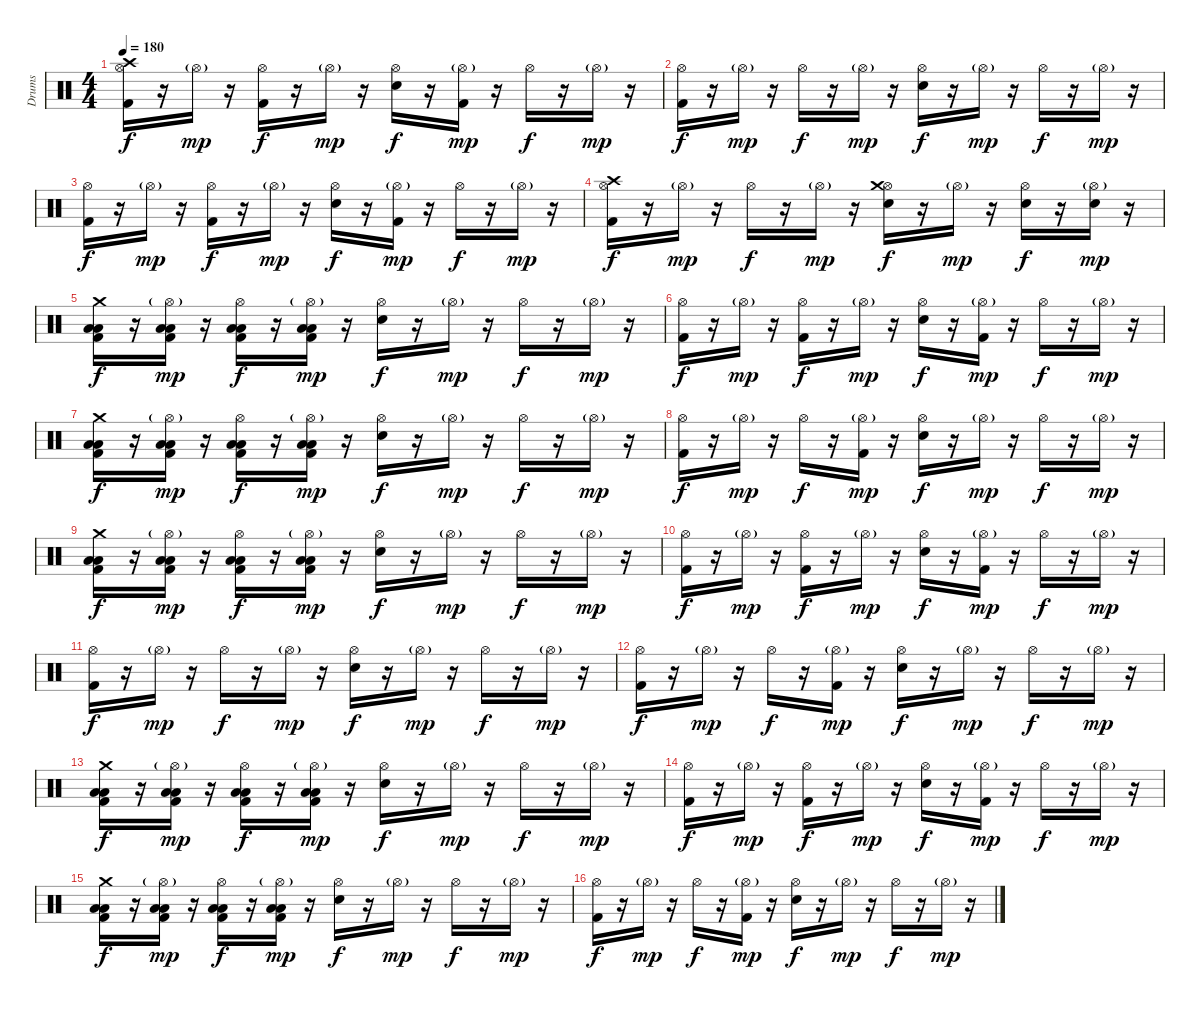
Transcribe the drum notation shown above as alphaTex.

\track ("Drums" "Drums") {instrument percussion}
\staff {score}
\articulation defaults
\ts (4 4)
\tempo 180
\clef neutral
\ks c
("Hi-Hat (open)" "Crash high (hit)" "Kick (hit) 2").16{dy f} r.16 "Hi-Hat (open)"{g}.16{dy mp} r.16 ("Hi-Hat (open)" "Kick (hit) 2").16{dy f} r.16 "Hi-Hat (open)"{g}.16{dy mp} r.16 ("Hi-Hat (open)" "Electric Snare (hit)").16{dy f} r.16 ("Hi-Hat (open)"{g} "Kick (hit) 2").16{dy mp} r.16 "Hi-Hat (open)".16{dy f} r.16 "Hi-Hat (open)"{g}.16{dy mp} r.16 |
("Hi-Hat (open)" "Kick (hit) 2").16{dy f} r.16 "Hi-Hat (open)"{g}.16{dy mp} r.16 "Hi-Hat (open)".16{dy f} r.16 "Hi-Hat (open)"{g}.16{dy mp} r.16 ("Hi-Hat (open)" "Electric Snare (hit)").16{dy f} r.16 "Hi-Hat (open)"{g}.16{dy mp} r.16 "Hi-Hat (open)".16{dy f} r.16 "Hi-Hat (open)"{g}.16{dy mp} r.16 |
("Hi-Hat (open)" "Kick (hit) 2").16{dy f} r.16 "Hi-Hat (open)"{g}.16{dy mp} r.16 ("Hi-Hat (open)" "Kick (hit) 2").16{dy f} r.16 "Hi-Hat (open)"{g}.16{dy mp} r.16 ("Hi-Hat (open)" "Electric Snare (hit)").16{dy f} r.16 ("Hi-Hat (open)"{g} "Kick (hit) 2").16{dy mp} r.16 "Hi-Hat (open)".16{dy f} r.16 "Hi-Hat (open)"{g}.16{dy mp} r.16 |
("Hi-Hat (open)" "Kick (hit) 2" "Crash high (hit)").16{dy f} r.16 "Hi-Hat (open)"{g}.16{dy mp} r.16 "Hi-Hat (open)".16{dy f} r.16 "Hi-Hat (open)"{g}.16{dy mp} r.16 ("Hi-Hat (open)" "Electric Snare (hit)" "Crash medium (hit)").16{dy f} r.16 "Hi-Hat (open)"{g}.16{dy mp} r.16 ("Hi-Hat (open)" "Electric Snare (hit)").16{dy f} r.16 ("Hi-Hat (open)"{g} "Electric Snare (hit)").16{dy mp} r.16 |
("Crash medium (hit)" "Kick (hit) 2" "Low Floor Tom (hit)" "Low Tom (hit)").16{dy f} r.16 ("Hi-Hat (open)"{g} "Kick (hit) 2" "Low Floor Tom (hit)" "Low Tom (hit)").16{dy mp} r.16 ("Hi-Hat (open)" "Kick (hit) 2" "Low Floor Tom (hit)" "Low Tom (hit)").16{dy f} r.16 ("Hi-Hat (open)"{g} "Kick (hit) 2" "Low Floor Tom (hit)" "Low Tom (hit)").16{dy mp} r.16 ("Hi-Hat (open)" "Electric Snare (hit)").16{dy f} r.16 "Hi-Hat (open)"{g}.16{dy mp} r.16 "Hi-Hat (open)".16{dy f} r.16 "Hi-Hat (open)"{g}.16{dy mp} r.16 |
("Hi-Hat (open)" "Kick (hit) 2").16{dy f} r.16 "Hi-Hat (open)"{g}.16{dy mp} r.16 ("Hi-Hat (open)" "Kick (hit) 2").16{dy f} r.16 "Hi-Hat (open)"{g}.16{dy mp} r.16 ("Hi-Hat (open)" "Electric Snare (hit)").16{dy f} r.16 ("Hi-Hat (open)"{g} "Kick (hit) 2").16{dy mp} r.16 "Hi-Hat (open)".16{dy f} r.16 "Hi-Hat (open)"{g}.16{dy mp} r.16 |
("Crash medium (hit)" "Kick (hit) 2" "Low Floor Tom (hit)" "Low Tom (hit)").16{dy f} r.16 ("Hi-Hat (open)"{g} "Kick (hit) 2" "Low Floor Tom (hit)" "Low Tom (hit)").16{dy mp} r.16 ("Hi-Hat (open)" "Kick (hit) 2" "Low Floor Tom (hit)" "Low Tom (hit)").16{dy f} r.16 ("Hi-Hat (open)"{g} "Kick (hit) 2" "Low Floor Tom (hit)" "Low Tom (hit)").16{dy mp} r.16 ("Hi-Hat (open)" "Electric Snare (hit)").16{dy f} r.16 "Hi-Hat (open)"{g}.16{dy mp} r.16 "Hi-Hat (open)".16{dy f} r.16 "Hi-Hat (open)"{g}.16{dy mp} r.16 |
("Hi-Hat (open)" "Kick (hit) 2").16{dy f} r.16 "Hi-Hat (open)"{g}.16{dy mp} r.16 "Hi-Hat (open)".16{dy f} r.16 ("Hi-Hat (open)"{g} "Kick (hit) 2").16{dy mp} r.16 ("Hi-Hat (open)" "Electric Snare (hit)").16{dy f} r.16 "Hi-Hat (open)"{g}.16{dy mp} r.16 "Hi-Hat (open)".16{dy f} r.16 "Hi-Hat (open)"{g}.16{dy mp} r.16 |
("Crash medium (hit)" "Kick (hit) 2" "Low Floor Tom (hit)" "Low Tom (hit)").16{dy f} r.16 ("Hi-Hat (open)"{g} "Kick (hit) 2" "Low Floor Tom (hit)" "Low Tom (hit)").16{dy mp} r.16 ("Hi-Hat (open)" "Kick (hit) 2" "Low Floor Tom (hit)" "Low Tom (hit)").16{dy f} r.16 ("Hi-Hat (open)"{g} "Kick (hit) 2" "Low Floor Tom (hit)" "Low Tom (hit)").16{dy mp} r.16 ("Hi-Hat (open)" "Electric Snare (hit)").16{dy f} r.16 "Hi-Hat (open)"{g}.16{dy mp} r.16 "Hi-Hat (open)".16{dy f} r.16 "Hi-Hat (open)"{g}.16{dy mp} r.16 |
("Hi-Hat (open)" "Kick (hit) 2").16{dy f} r.16 "Hi-Hat (open)"{g}.16{dy mp} r.16 ("Hi-Hat (open)" "Kick (hit) 2").16{dy f} r.16 "Hi-Hat (open)"{g}.16{dy mp} r.16 ("Hi-Hat (open)" "Electric Snare (hit)").16{dy f} r.16 ("Hi-Hat (open)"{g} "Kick (hit) 2").16{dy mp} r.16 "Hi-Hat (open)".16{dy f} r.16 "Hi-Hat (open)"{g}.16{dy mp} r.16 |
("Hi-Hat (open)" "Kick (hit) 2").16{dy f} r.16 "Hi-Hat (open)"{g}.16{dy mp} r.16 "Hi-Hat (open)".16{dy f} r.16 "Hi-Hat (open)"{g}.16{dy mp} r.16 ("Hi-Hat (open)" "Electric Snare (hit)").16{dy f} r.16 "Hi-Hat (open)"{g}.16{dy mp} r.16 "Hi-Hat (open)".16{dy f} r.16 "Hi-Hat (open)"{g}.16{dy mp} r.16 |
("Hi-Hat (open)" "Kick (hit) 2").16{dy f} r.16 "Hi-Hat (open)"{g}.16{dy mp} r.16 "Hi-Hat (open)".16{dy f} r.16 ("Hi-Hat (open)"{g} "Kick (hit) 2").16{dy mp} r.16 ("Hi-Hat (open)" "Electric Snare (hit)").16{dy f} r.16 "Hi-Hat (open)"{g}.16{dy mp} r.16 "Hi-Hat (open)".16{dy f} r.16 "Hi-Hat (open)"{g}.16{dy mp} r.16 |
("Crash medium (hit)" "Kick (hit) 2" "Low Floor Tom (hit)" "Low Tom (hit)").16{dy f} r.16 ("Hi-Hat (open)"{g} "Kick (hit) 2" "Low Floor Tom (hit)" "Low Tom (hit)").16{dy mp} r.16 ("Hi-Hat (open)" "Kick (hit) 2" "Low Floor Tom (hit)" "Low Tom (hit)").16{dy f} r.16 ("Hi-Hat (open)"{g} "Kick (hit) 2" "Low Floor Tom (hit)" "Low Tom (hit)").16{dy mp} r.16 ("Hi-Hat (open)" "Electric Snare (hit)").16{dy f} r.16 "Hi-Hat (open)"{g}.16{dy mp} r.16 "Hi-Hat (open)".16{dy f} r.16 "Hi-Hat (open)"{g}.16{dy mp} r.16 |
("Hi-Hat (open)" "Kick (hit) 2").16{dy f} r.16 "Hi-Hat (open)"{g}.16{dy mp} r.16 ("Hi-Hat (open)" "Kick (hit) 2").16{dy f} r.16 "Hi-Hat (open)"{g}.16{dy mp} r.16 ("Hi-Hat (open)" "Electric Snare (hit)").16{dy f} r.16 ("Hi-Hat (open)"{g} "Kick (hit) 2").16{dy mp} r.16 "Hi-Hat (open)".16{dy f} r.16 "Hi-Hat (open)"{g}.16{dy mp} r.16 |
("Crash medium (hit)" "Kick (hit) 2" "Low Floor Tom (hit)" "Low Tom (hit)").16{dy f} r.16 ("Hi-Hat (open)"{g} "Kick (hit) 2" "Low Floor Tom (hit)" "Low Tom (hit)").16{dy mp} r.16 ("Hi-Hat (open)" "Kick (hit) 2" "Low Floor Tom (hit)" "Low Tom (hit)").16{dy f} r.16 ("Hi-Hat (open)"{g} "Kick (hit) 2" "Low Floor Tom (hit)" "Low Tom (hit)").16{dy mp} r.16 ("Hi-Hat (open)" "Electric Snare (hit)").16{dy f} r.16 "Hi-Hat (open)"{g}.16{dy mp} r.16 "Hi-Hat (open)".16{dy f} r.16 "Hi-Hat (open)"{g}.16{dy mp} r.16 |
("Hi-Hat (open)" "Kick (hit) 2").16{dy f} r.16 "Hi-Hat (open)"{g}.16{dy mp} r.16 "Hi-Hat (open)".16{dy f} r.16 ("Hi-Hat (open)"{g} "Kick (hit) 2").16{dy mp} r.16 ("Hi-Hat (open)" "Electric Snare (hit)").16{dy f} r.16 "Hi-Hat (open)"{g}.16{dy mp} r.16 "Hi-Hat (open)".16{dy f} r.16 "Hi-Hat (open)"{g}.16{dy mp} r.16
